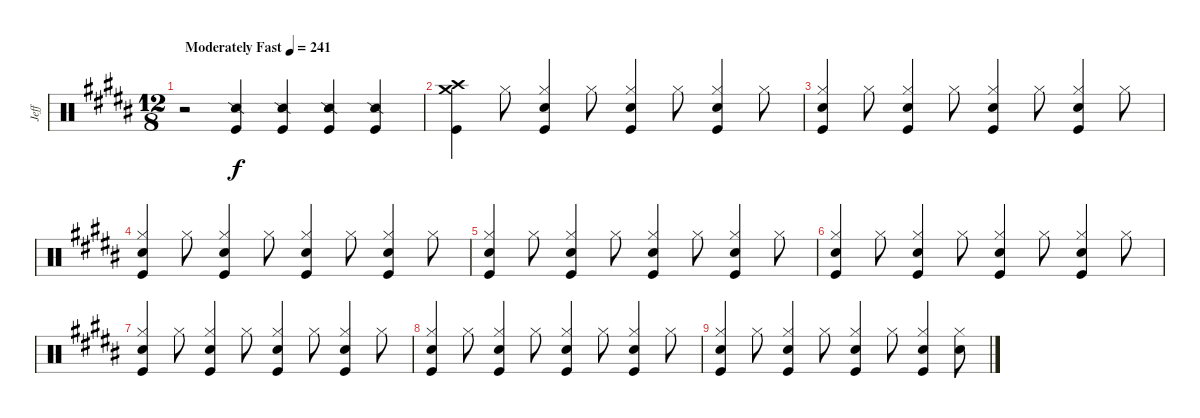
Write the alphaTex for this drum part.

\track ("Jeff" "Jeff") {instrument percussion}
\staff {score}
\articulation defaults
\ts (12 8)
\tempo (241 "Moderately Fast")
\clef neutral
\ks b
r.2{dy f} ("Kick (hit)" "Snare (side stick) 2").4 ("Kick (hit)" "Snare (side stick) 2").4 ("Kick (hit)" "Snare (side stick) 2").4 ("Kick (hit)" "Snare (side stick) 2").4 |
("Kick (hit)" "Crash high (hit)" "Crash medium (hit)").4 "Hi-Hat (closed)".8 ("Hi-Hat (closed)" "Snare (hit) 2" "Kick (hit)").4 "Hi-Hat (closed)".8 ("Hi-Hat (closed)" "Snare (hit) 2" "Kick (hit)").4 "Hi-Hat (closed)".8 ("Hi-Hat (closed)" "Snare (hit) 2" "Kick (hit)").4 "Hi-Hat (closed)".8 |
("Hi-Hat (closed)" "Snare (hit) 2" "Kick (hit)").4 "Hi-Hat (closed)".8 ("Hi-Hat (closed)" "Snare (hit) 2" "Kick (hit)").4 "Hi-Hat (closed)".8 ("Hi-Hat (closed)" "Snare (hit) 2" "Kick (hit)").4 "Hi-Hat (closed)".8 ("Hi-Hat (closed)" "Snare (hit) 2" "Kick (hit)").4 "Hi-Hat (closed)".8 |
("Hi-Hat (closed)" "Snare (hit) 2" "Kick (hit)").4 "Hi-Hat (closed)".8 ("Hi-Hat (closed)" "Snare (hit) 2" "Kick (hit)").4 "Hi-Hat (closed)".8 ("Hi-Hat (closed)" "Snare (hit) 2" "Kick (hit)").4 "Hi-Hat (closed)".8 ("Hi-Hat (closed)" "Snare (hit) 2" "Kick (hit)").4 "Hi-Hat (closed)".8 |
("Hi-Hat (closed)" "Snare (hit) 2" "Kick (hit)").4 "Hi-Hat (closed)".8 ("Hi-Hat (closed)" "Snare (hit) 2" "Kick (hit)").4 "Hi-Hat (closed)".8 ("Hi-Hat (closed)" "Snare (hit) 2" "Kick (hit)").4 "Hi-Hat (closed)".8 ("Hi-Hat (closed)" "Snare (hit) 2" "Kick (hit)").4 "Hi-Hat (closed)".8 |
("Hi-Hat (closed)" "Snare (hit) 2" "Kick (hit)").4 "Hi-Hat (closed)".8 ("Hi-Hat (closed)" "Snare (hit) 2" "Kick (hit)").4 "Hi-Hat (closed)".8 ("Hi-Hat (closed)" "Snare (hit) 2" "Kick (hit)").4 "Hi-Hat (closed)".8 ("Hi-Hat (closed)" "Snare (hit) 2" "Kick (hit)").4 "Hi-Hat (closed)".8 |
("Hi-Hat (closed)" "Snare (hit) 2" "Kick (hit)").4 "Hi-Hat (closed)".8 ("Hi-Hat (closed)" "Snare (hit) 2" "Kick (hit)").4 "Hi-Hat (closed)".8 ("Hi-Hat (closed)" "Snare (hit) 2" "Kick (hit)").4 "Hi-Hat (closed)".8 ("Hi-Hat (closed)" "Snare (hit) 2" "Kick (hit)").4 "Hi-Hat (closed)".8 |
("Hi-Hat (closed)" "Snare (hit) 2" "Kick (hit)").4 "Hi-Hat (closed)".8 ("Hi-Hat (closed)" "Snare (hit) 2" "Kick (hit)").4 "Hi-Hat (closed)".8 ("Hi-Hat (closed)" "Snare (hit) 2" "Kick (hit)").4 "Hi-Hat (closed)".8 ("Hi-Hat (closed)" "Snare (hit) 2" "Kick (hit)").4 "Hi-Hat (closed)".8 |
("Hi-Hat (closed)" "Snare (hit) 2" "Kick (hit)").4 "Hi-Hat (closed)".8 ("Hi-Hat (closed)" "Snare (hit) 2" "Kick (hit)").4 "Hi-Hat (closed)".8 ("Hi-Hat (closed)" "Snare (hit) 2" "Kick (hit)").4 "Hi-Hat (closed)".8 ("Hi-Hat (closed)" "Snare (hit) 2" "Kick (hit)").4 ("Hi-Hat (closed)" "Snare (hit) 2").8
